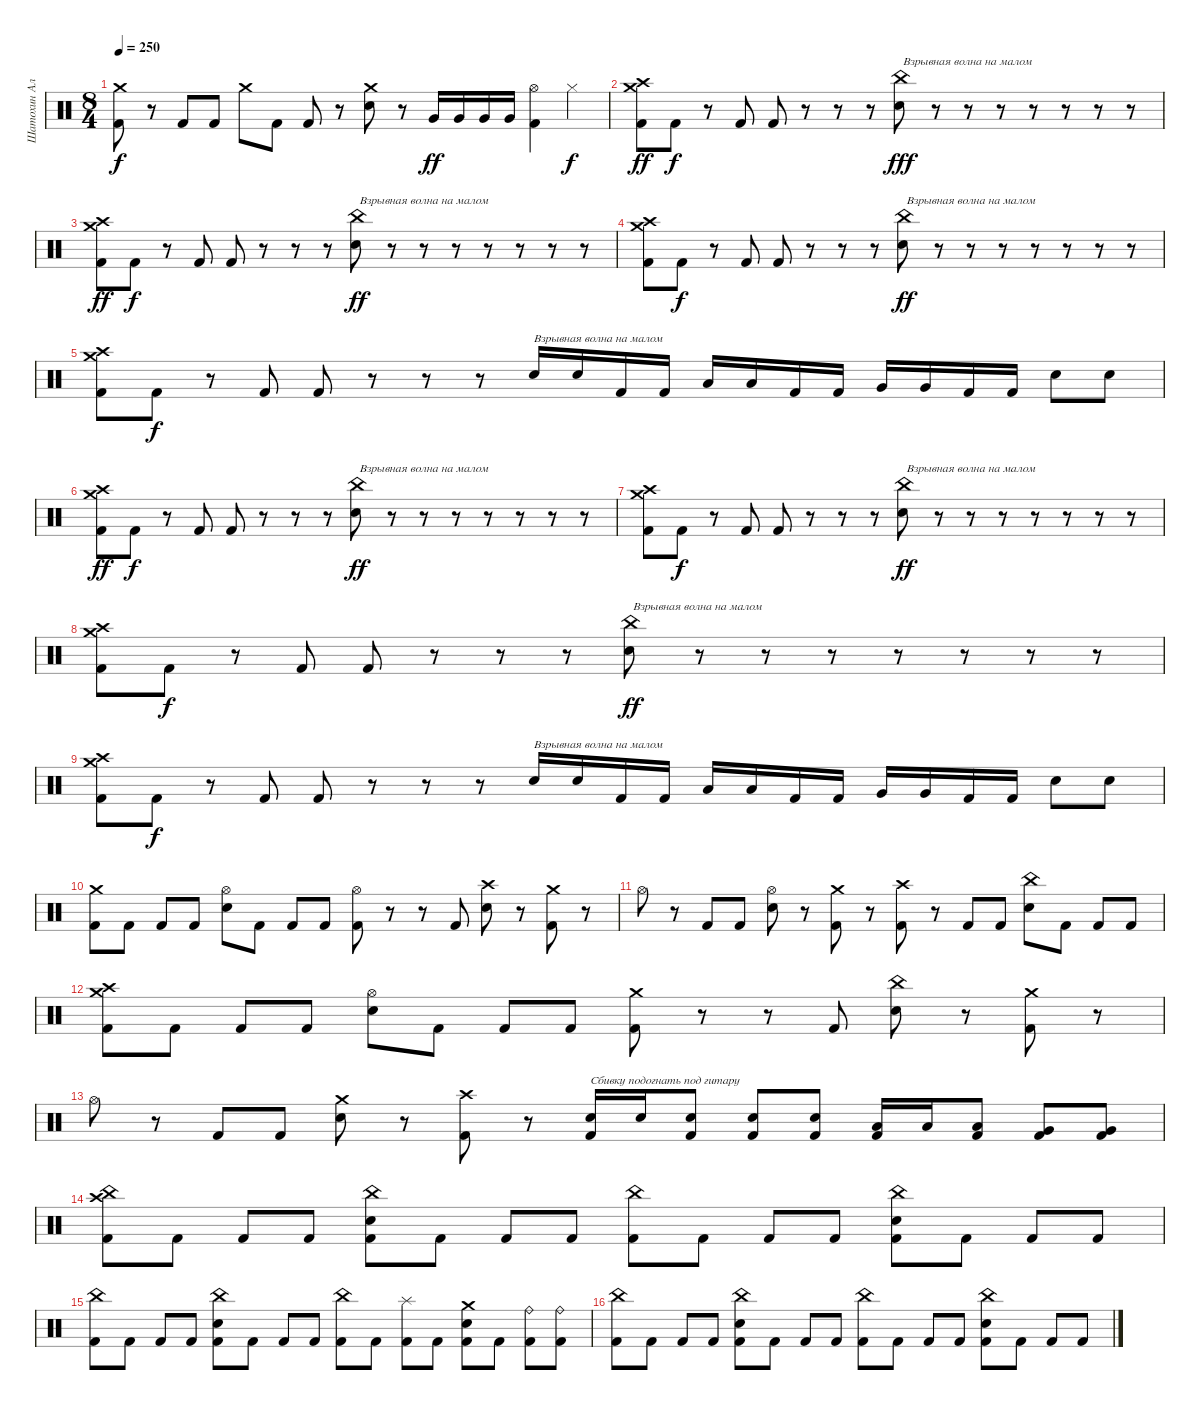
\track ("Шатохин Алексей" "Шатохин Ал") {instrument percussion}
\staff {score}
\articulation defaults
\ts (8 4)
\tempo 250
\clef neutral
\ks c
("Crash medium (hit)" "Kick (hit) 2").8{dy f} r.8 "Kick (hit) 2".8 "Kick (hit) 2".8 "Crash medium (hit)".8 "Kick (hit) 2".8 "Kick (hit) 2".8 r.8 ("Crash medium (hit)" "Electric Snare (hit)").8 r.8 "Very Low Tom (hit)".16{dy ff} "Very Low Tom (hit)".16 "Very Low Tom (hit)".16 "Very Low Tom (hit)".16 ("Hi-Hat (open)" "Kick (hit) 2").4 "Hi-Hat (closed)".4{dy f} |
("Kick (hit) 2" "Crash high (hit)" "Crash medium (hit)").8{dy ff} "Kick (hit) 2".8{dy f} r.8 "Kick (hit) 2".8 "Kick (hit) 2".8 r.8 r.8 r.8 ("Electric Snare (hit)" "China (hit)").8{txt "Взрывная волна на малом" dy fff} r.8 r.8 r.8 r.8 r.8 r.8 r.8 |
("Kick (hit) 2" "Crash high (hit)" "Crash medium (hit)").8{dy ff} "Kick (hit) 2".8{dy f} r.8 "Kick (hit) 2".8 "Kick (hit) 2".8 r.8 r.8 r.8 ("Electric Snare (hit)" "China (hit)").8{txt "Взрывная волна на малом" dy ff} r.8 r.8 r.8 r.8 r.8 r.8 r.8 |
("Kick (hit) 2" "Crash high (hit)" "Crash medium (hit)").8 "Kick (hit) 2".8{dy f} r.8 "Kick (hit) 2".8 "Kick (hit) 2".8 r.8 r.8 r.8 ("Electric Snare (hit)" "China (hit)").8{txt "Взрывная волна на малом" dy ff} r.8 r.8 r.8 r.8 r.8 r.8 r.8 |
("Kick (hit) 2" "Crash high (hit)" "Crash medium (hit)").8 "Kick (hit) 2".8{dy f} r.8 "Kick (hit) 2".8 "Kick (hit) 2".8 r.8 r.8 r.8 "Electric Snare (hit)".16{txt "Взрывная волна на малом"} "Electric Snare (hit)".16 "Kick (hit) 2".16 "Kick (hit) 2".16 "Low Tom (hit)".16 "Low Tom (hit)".16 "Kick (hit) 2".16 "Kick (hit) 2".16 "Very Low Tom (hit)".16 "Very Low Tom (hit)".16 "Kick (hit) 2".16 "Kick (hit) 2".16 "Electric Snare (hit)".8 "Electric Snare (hit)".8 |
("Kick (hit) 2" "Crash high (hit)" "Crash medium (hit)").8{dy ff} "Kick (hit) 2".8{dy f} r.8 "Kick (hit) 2".8 "Kick (hit) 2".8 r.8 r.8 r.8 ("Electric Snare (hit)" "China (hit)").8{txt "Взрывная волна на малом" dy ff} r.8 r.8 r.8 r.8 r.8 r.8 r.8 |
("Kick (hit) 2" "Crash high (hit)" "Crash medium (hit)").8 "Kick (hit) 2".8{dy f} r.8 "Kick (hit) 2".8 "Kick (hit) 2".8 r.8 r.8 r.8 ("Electric Snare (hit)" "China (hit)").8{txt "Взрывная волна на малом" dy ff} r.8 r.8 r.8 r.8 r.8 r.8 r.8 |
("Kick (hit) 2" "Crash high (hit)" "Crash medium (hit)").8 "Kick (hit) 2".8{dy f} r.8 "Kick (hit) 2".8 "Kick (hit) 2".8 r.8 r.8 r.8 ("Electric Snare (hit)" "China (hit)").8{txt "Взрывная волна на малом" dy ff} r.8 r.8 r.8 r.8 r.8 r.8 r.8 |
("Kick (hit) 2" "Crash high (hit)" "Crash medium (hit)").8 "Kick (hit) 2".8{dy f} r.8 "Kick (hit) 2".8 "Kick (hit) 2".8 r.8 r.8 r.8 "Electric Snare (hit)".16{txt "Взрывная волна на малом"} "Electric Snare (hit)".16 "Kick (hit) 2".16 "Kick (hit) 2".16 "Low Tom (hit)".16 "Low Tom (hit)".16 "Kick (hit) 2".16 "Kick (hit) 2".16 "Very Low Tom (hit)".16 "Very Low Tom (hit)".16 "Kick (hit) 2".16 "Kick (hit) 2".16 "Electric Snare (hit)".8 "Electric Snare (hit)".8 |
("Kick (hit) 2" "Crash medium (hit)").8 "Kick (hit) 2".8 "Kick (hit) 2".8 "Kick (hit) 2".8 ("Electric Snare (hit)" "Hi-Hat (open)").8 "Kick (hit) 2".8 "Kick (hit) 2".8 "Kick (hit) 2".8 ("Kick (hit) 2" "Hi-Hat (open)").8 r.8 r.8 "Kick (hit) 2".8 ("Electric Snare (hit)" "Crash high (hit)").8 r.8 ("Kick (hit) 2" "Crash medium (hit)").8 r.8 |
"Hi-Hat (open)".8 r.8 "Kick (hit) 2".8 "Kick (hit) 2".8 ("Electric Snare (hit)" "Hi-Hat (open)").8 r.8 ("Kick (hit) 2" "Crash medium (hit)").8 r.8 ("Kick (hit) 2" "Crash high (hit)").8 r.8 "Kick (hit) 2".8 "Kick (hit) 2".8 ("Electric Snare (hit)" "China (hit)").8 "Kick (hit) 2".8 "Kick (hit) 2".8 "Kick (hit) 2".8 |
("Kick (hit) 2" "Crash medium (hit)" "Crash high (hit)").8 "Kick (hit) 2".8 "Kick (hit) 2".8 "Kick (hit) 2".8 ("Electric Snare (hit)" "Hi-Hat (open)").8 "Kick (hit) 2".8 "Kick (hit) 2".8 "Kick (hit) 2".8 ("Kick (hit) 2" "Crash medium (hit)").8 r.8 r.8 "Kick (hit) 2".8 ("Electric Snare (hit)" "China (hit)").8 r.8 ("Kick (hit) 2" "Crash medium (hit)").8 r.8 |
"Hi-Hat (open)".8 r.8 "Kick (hit) 2".8 "Kick (hit) 2".8 ("Electric Snare (hit)" "Crash medium (hit)").8 r.8 ("Kick (hit) 2" "Crash high (hit)").8 r.8 ("Electric Snare (hit)" "Kick (hit) 2").16{txt "Сбивку подогнать под гитару"} "Electric Snare (hit)".16 ("Electric Snare (hit)" "Kick (hit) 2").8 ("Electric Snare (hit)" "Kick (hit) 2").8 ("Electric Snare (hit)" "Kick (hit) 2").8 ("Low Tom (hit)" "Kick (hit) 2").16 "Low Tom (hit)".16 ("Low Tom (hit)" "Kick (hit) 2").8 ("Very Low Tom (hit)" "Kick (hit) 2").8 ("Very Low Tom (hit)" "Kick (hit) 2").8 |
("Kick (hit) 2" "Crash high (hit)" "China (hit)").8 "Kick (hit) 2".8 "Kick (hit) 2".8 "Kick (hit) 2".8 ("Kick (hit) 2" "Electric Snare (hit)" "China (hit)").8 "Kick (hit) 2".8 "Kick (hit) 2".8 "Kick (hit) 2".8 ("Kick (hit) 2" "China (hit)").8 "Kick (hit) 2".8 "Kick (hit) 2".8 "Kick (hit) 2".8 ("Kick (hit) 2" "Electric Snare (hit)" "China (hit)").8 "Kick (hit) 2".8 "Kick (hit) 2".8 "Kick (hit) 2".8 |
("Kick (hit) 2" "China (hit)").8 "Kick (hit) 2".8 "Kick (hit) 2".8 "Kick (hit) 2".8 ("Kick (hit) 2" "Electric Snare (hit)" "China (hit)").8 "Kick (hit) 2".8 "Kick (hit) 2".8 "Kick (hit) 2".8 ("Kick (hit) 2" "China (hit)").8 "Kick (hit) 2".8 ("Kick (hit) 2" "Splash (hit)").8 "Kick (hit) 2".8 ("Kick (hit) 2" "Electric Snare (hit)" "Crash medium (hit)").8 "Kick (hit) 2".8 ("Kick (hit) 2" "Ride (bell)").8 ("Kick (hit) 2" "Ride (bell)").8 |
("Kick (hit) 2" "China (hit)").8 "Kick (hit) 2".8 "Kick (hit) 2".8 "Kick (hit) 2".8 ("Kick (hit) 2" "Electric Snare (hit)" "China (hit)").8 "Kick (hit) 2".8 "Kick (hit) 2".8 "Kick (hit) 2".8 ("Kick (hit) 2" "China (hit)").8 "Kick (hit) 2".8 "Kick (hit) 2".8 "Kick (hit) 2".8 ("Kick (hit) 2" "Electric Snare (hit)" "China (hit)").8 "Kick (hit) 2".8 "Kick (hit) 2".8 "Kick (hit) 2".8
